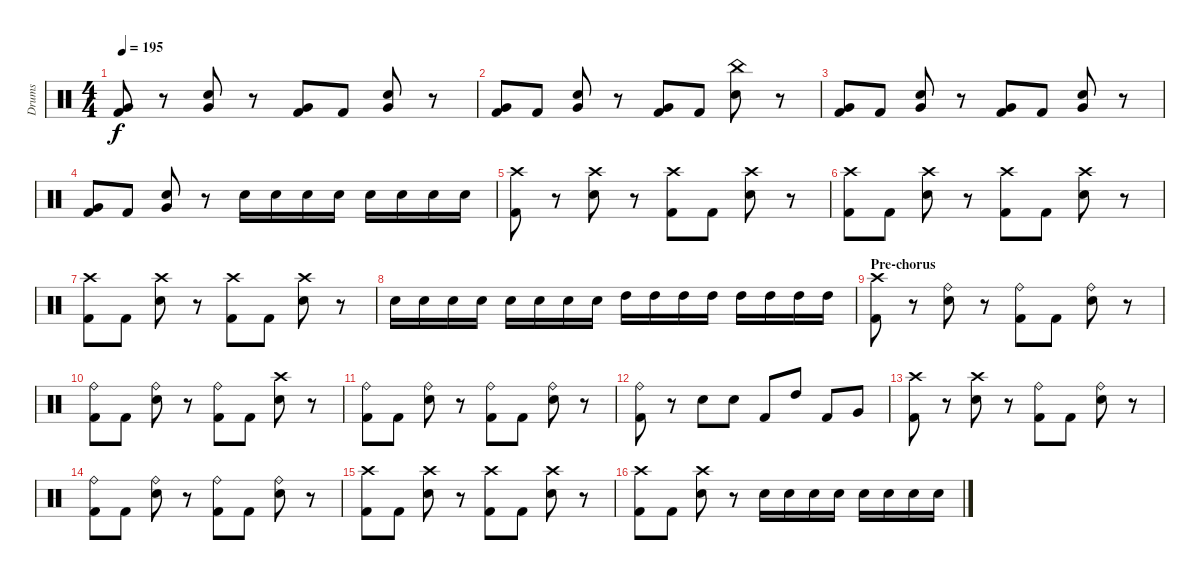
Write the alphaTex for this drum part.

\track ("Drums" "Drums") {instrument percussion}
\staff {score}
\articulation defaults
\ts (4 4)
\tempo 195
\clef neutral
\ks c
("Very Low Tom (hit)" "Kick (hit) 2").8{dy f} r.8 ("Very Low Tom (hit)" "Electric Snare (hit)").8 r.8 ("Very Low Tom (hit)" "Kick (hit) 2").8 "Kick (hit) 2".8 ("Very Low Tom (hit)" "Electric Snare (hit)").8 r.8 |
("Very Low Tom (hit)" "Kick (hit) 2").8 "Kick (hit) 2".8 ("Very Low Tom (hit)" "Electric Snare (hit)").8 r.8 ("Very Low Tom (hit)" "Kick (hit) 2").8 "Kick (hit) 2".8 ("China (hit)" "Electric Snare (hit)").8 r.8 |
("Very Low Tom (hit)" "Kick (hit) 2").8 "Kick (hit) 2".8 ("Very Low Tom (hit)" "Electric Snare (hit)").8 r.8 ("Very Low Tom (hit)" "Kick (hit) 2").8 "Kick (hit) 2".8 ("Very Low Tom (hit)" "Electric Snare (hit)").8 r.8 |
("Very Low Tom (hit)" "Kick (hit) 2").8 "Kick (hit) 2".8 ("Very Low Tom (hit)" "Electric Snare (hit)").8 r.8 "Electric Snare (hit)".16 "Electric Snare (hit)".16 "Electric Snare (hit)".16 "Electric Snare (hit)".16 "Electric Snare (hit)".16 "Electric Snare (hit)".16 "Electric Snare (hit)".16 "Electric Snare (hit)".16 |
("Crash high (hit)" "Kick (hit) 2").8 r.8 ("Crash high (hit)" "Electric Snare (hit)").8 r.8 ("Crash high (hit)" "Kick (hit) 2").8 "Kick (hit) 2".8 ("Crash high (hit)" "Electric Snare (hit)").8 r.8 |
("Crash high (hit)" "Kick (hit) 2").8 "Kick (hit) 2".8 ("Crash high (hit)" "Electric Snare (hit)").8 r.8 ("Crash high (hit)" "Kick (hit) 2").8 "Kick (hit) 2".8 ("Crash high (hit)" "Electric Snare (hit)").8 r.8 |
("Crash high (hit)" "Kick (hit) 2").8 "Kick (hit) 2".8 ("Crash high (hit)" "Electric Snare (hit)").8 r.8 ("Crash high (hit)" "Kick (hit) 2").8 "Kick (hit) 2".8 ("Crash high (hit)" "Electric Snare (hit)").8 r.8 |
"Electric Snare (hit)".16 "Electric Snare (hit)".16 "Electric Snare (hit)".16 "Electric Snare (hit)".16 "Electric Snare (hit)".16 "Electric Snare (hit)".16 "Electric Snare (hit)".16 "Electric Snare (hit)".16 "High Tom (hit)".16 "High Tom (hit)".16 "High Tom (hit)".16 "High Tom (hit)".16 "High Tom (hit)".16 "High Tom (hit)".16 "High Tom (hit)".16 "High Tom (hit)".16 |
\section ("" "Pre-chorus")
("Crash high (hit)" "Kick (hit) 2").8 r.8 ("Ride (bell)" "Electric Snare (hit)").8 r.8 ("Ride (bell)" "Kick (hit) 2").8 "Kick (hit) 2".8 ("Ride (bell)" "Electric Snare (hit)").8 r.8 |
("Ride (bell)" "Kick (hit) 2").8 "Kick (hit) 2".8 ("Ride (bell)" "Electric Snare (hit)").8 r.8 ("Ride (bell)" "Kick (hit) 2").8 "Kick (hit) 2".8 ("Crash high (hit)" "Electric Snare (hit)").8 r.8 |
("Ride (bell)" "Kick (hit) 2").8 "Kick (hit) 2".8 ("Ride (bell)" "Electric Snare (hit)").8 r.8 ("Ride (bell)" "Kick (hit) 2").8 "Kick (hit) 2".8 ("Ride (bell)" "Electric Snare (hit)").8 r.8 |
("Ride (bell)" "Kick (hit) 2").8 r.8 "Electric Snare (hit)".8 "Electric Snare (hit)".8 "Kick (hit) 2".8 "High Tom (hit)".8 "Kick (hit) 2".8 "Very Low Tom (hit)".8 |
("Crash high (hit)" "Kick (hit) 2").8 r.8 ("Crash high (hit)" "Electric Snare (hit)").8 r.8 ("Ride (bell)" "Kick (hit) 2").8 "Kick (hit) 2".8 ("Ride (bell)" "Electric Snare (hit)").8 r.8 |
("Ride (bell)" "Kick (hit) 2").8 "Kick (hit) 2".8 ("Ride (bell)" "Electric Snare (hit)").8 r.8 ("Ride (bell)" "Kick (hit) 2").8 "Kick (hit) 2".8 ("Ride (bell)" "Electric Snare (hit)").8 r.8 |
("Crash high (hit)" "Kick (hit) 2").8 "Kick (hit) 2".8 ("Crash high (hit)" "Electric Snare (hit)").8 r.8 ("Crash high (hit)" "Kick (hit) 2").8 "Kick (hit) 2".8 ("Crash high (hit)" "Electric Snare (hit)").8 r.8 |
("Crash high (hit)" "Kick (hit) 2").8 "Kick (hit) 2".8 ("Crash high (hit)" "Electric Snare (hit)").8 r.8 "Electric Snare (hit)".16 "Electric Snare (hit)".16 "Electric Snare (hit)".16 "Electric Snare (hit)".16 "Electric Snare (hit)".16 "Electric Snare (hit)".16 "Electric Snare (hit)".16 "Electric Snare (hit)".16
